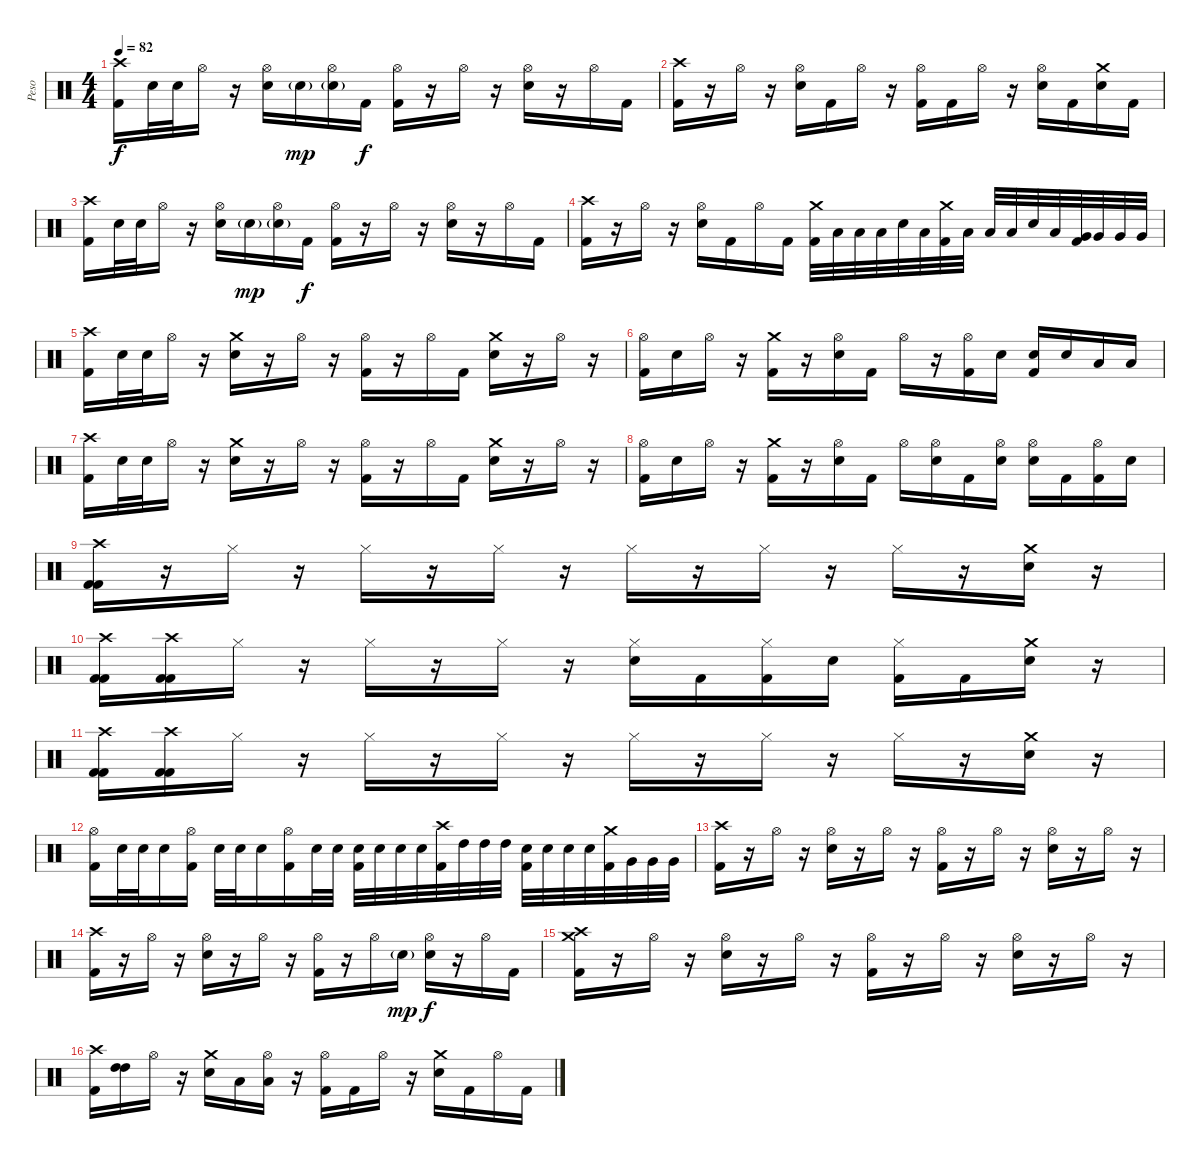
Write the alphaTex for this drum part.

\track ("Peso" "Peso") {instrument percussion}
\staff {score}
\articulation defaults
\ts (4 4)
\tempo 82
\clef neutral
\ks c
("Crash high (hit)" "Kick (hit) 2").16{dy f} "Electric Snare (hit)".32 "Electric Snare (hit)".32 "Hi-Hat (open)".16 r.16 ("Hi-Hat (open)" "Electric Snare (hit)").16 "Electric Snare (hit)"{g}.16{dy mp} ("Hi-Hat (open)" "Electric Snare (hit)"{g}).16 "Kick (hit) 2".16{dy f} ("Hi-Hat (open)" "Kick (hit) 2").16 r.16 "Hi-Hat (open)".16 r.16 ("Hi-Hat (open)" "Electric Snare (hit)").16 r.16 "Hi-Hat (open)".16 "Kick (hit) 2".16 |
("Crash high (hit)" "Kick (hit) 2").16 r.16 "Hi-Hat (open)".16 r.16 ("Hi-Hat (open)" "Electric Snare (hit)").16 "Kick (hit) 2".16 "Hi-Hat (open)".16 r.16 ("Hi-Hat (open)" "Kick (hit) 2").16 "Kick (hit) 2".16 "Hi-Hat (open)".16 r.16 ("Hi-Hat (open)" "Electric Snare (hit)").16 "Kick (hit) 2".16 ("Crash medium (hit)" "Electric Snare (hit)").16 "Kick (hit) 2".16 |
("Crash high (hit)" "Kick (hit) 2").16 "Electric Snare (hit)".32 "Electric Snare (hit)".32 "Hi-Hat (open)".16 r.16 ("Hi-Hat (open)" "Electric Snare (hit)").16 "Electric Snare (hit)"{g}.16{dy mp} ("Hi-Hat (open)" "Electric Snare (hit)"{g}).16 "Kick (hit) 2".16{dy f} ("Hi-Hat (open)" "Kick (hit) 2").16 r.16 "Hi-Hat (open)".16 r.16 ("Hi-Hat (open)" "Electric Snare (hit)").16 r.16 "Hi-Hat (open)".16 "Kick (hit) 2".16 |
("Crash high (hit)" "Kick (hit) 2").16 r.16 "Hi-Hat (open)".16 r.16 ("Hi-Hat (open)" "Electric Snare (hit)").16 "Kick (hit) 2".16 "Hi-Hat (open)".16 "Kick (hit) 2".16 ("Crash medium (hit)" "Kick (hit) 2").32 "Low Tom (hit)".32 "Low Tom (hit)".32 "Low Tom (hit)".32 "Electric Snare (hit)".32 "Low Tom (hit)".32 ("Crash medium (hit)" "Kick (hit) 2").32 "Low Tom (hit)".32 "Low Tom (hit)".32 "Low Tom (hit)".32 "Electric Snare (hit)".32 "Low Tom (hit)".32 ("Very Low Tom (hit)" "Kick (hit) 2").32 "Very Low Tom (hit)".32 "Very Low Tom (hit)".32 "Very Low Tom (hit)".32 |
("Crash high (hit)" "Kick (hit) 2").16 "Electric Snare (hit)".32 "Electric Snare (hit)".32 "Hi-Hat (open)".16 r.16 ("Crash medium (hit)" "Electric Snare (hit)").16 r.16 "Hi-Hat (open)".16 r.16 ("Hi-Hat (open)" "Kick (hit) 2").16 r.16 "Hi-Hat (open)".16 "Kick (hit) 2".16 ("Crash medium (hit)" "Electric Snare (hit)").16 r.16 "Hi-Hat (open)".16 r.16 |
("Hi-Hat (open)" "Kick (hit) 2").16 "Electric Snare (hit)".16 "Hi-Hat (open)".16 r.16 ("Crash medium (hit)" "Kick (hit) 2").16 r.16 ("Hi-Hat (open)" "Electric Snare (hit)").16 "Kick (hit) 2".16 "Hi-Hat (open)".16 r.16 ("Hi-Hat (open)" "Kick (hit) 2").16 "Electric Snare (hit)".16 ("Electric Snare (hit)" "Kick (hit) 2").16 "Electric Snare (hit)".16 "Low Tom (hit)".16 "Low Tom (hit)".16 |
("Crash high (hit)" "Kick (hit) 2").16 "Electric Snare (hit)".32 "Electric Snare (hit)".32 "Hi-Hat (open)".16 r.16 ("Crash medium (hit)" "Electric Snare (hit)").16 r.16 "Hi-Hat (open)".16 r.16 ("Hi-Hat (open)" "Kick (hit) 2").16 r.16 "Hi-Hat (open)".16 "Kick (hit) 2".16 ("Crash medium (hit)" "Electric Snare (hit)").16 r.16 "Hi-Hat (open)".16 r.16 |
("Hi-Hat (open)" "Kick (hit) 2").16 "Electric Snare (hit)".16 "Hi-Hat (open)".16 r.16 ("Crash medium (hit)" "Kick (hit) 2").16 r.16 ("Hi-Hat (open)" "Electric Snare (hit)").16 "Kick (hit) 2".16 "Hi-Hat (open)".16 ("Hi-Hat (open)" "Electric Snare (hit)").16 "Kick (hit) 2".16 ("Hi-Hat (open)" "Electric Snare (hit)").16 ("Hi-Hat (open)" "Electric Snare (hit)").16 "Kick (hit) 2".16 ("Hi-Hat (open)" "Kick (hit) 2").16 "Electric Snare (hit)".16 |
("Crash high (hit)" "Kick (hit) 2" "Kick (hit) 2").16 r.16 "Hi-Hat (closed)".16 r.16 "Hi-Hat (closed)".16 r.16 "Hi-Hat (closed)".16 r.16 "Hi-Hat (closed)".16 r.16 "Hi-Hat (closed)".16 r.16 "Hi-Hat (closed)".16 r.16 ("Crash medium (hit)" "Electric Snare (hit)").16 r.16 |
("Crash high (hit)" "Kick (hit) 2" "Kick (hit) 2").16 ("Crash high (hit)" "Kick (hit) 2" "Kick (hit) 2").16 "Hi-Hat (closed)".16 r.16 "Hi-Hat (closed)".16 r.16 "Hi-Hat (closed)".16 r.16 ("Hi-Hat (closed)" "Electric Snare (hit)").16 "Kick (hit) 2".16 ("Hi-Hat (closed)" "Kick (hit) 2").16 "Electric Snare (hit)".16 ("Hi-Hat (closed)" "Kick (hit) 2").16 "Kick (hit) 2".16 ("Crash medium (hit)" "Electric Snare (hit)").16 r.16 |
("Crash high (hit)" "Kick (hit) 2" "Kick (hit) 2").16 ("Crash high (hit)" "Kick (hit) 2" "Kick (hit) 2").16 "Hi-Hat (closed)".16 r.16 "Hi-Hat (closed)".16 r.16 "Hi-Hat (closed)".16 r.16 "Hi-Hat (closed)".16 r.16 "Hi-Hat (closed)".16 r.16 "Hi-Hat (closed)".16 r.16 ("Crash medium (hit)" "Electric Snare (hit)").16 r.16 |
("Hi-Hat (open)" "Kick (hit) 2").16 "Electric Snare (hit)".32 "Electric Snare (hit)".32 "Electric Snare (hit)".16 ("Hi-Hat (open)" "Kick (hit) 2").16 "Electric Snare (hit)".32 "Electric Snare (hit)".32 "Electric Snare (hit)".16 ("Hi-Hat (open)" "Kick (hit) 2").16 "Electric Snare (hit)".32 "Electric Snare (hit)".32 ("Electric Snare (hit)" "Kick (hit) 2").32 "Electric Snare (hit)".32 "Electric Snare (hit)".32 "Electric Snare (hit)".32 ("Crash high (hit)" "Kick (hit) 2").32 "High Tom (hit)".32 "High Tom (hit)".32 "High Tom (hit)".32 ("Electric Snare (hit)" "Kick (hit) 2").32 "Electric Snare (hit)".32 "Electric Snare (hit)".32 "Electric Snare (hit)".32 ("Crash medium (hit)" "Kick (hit) 2").32 "Very Low Tom (hit)".32 "Very Low Tom (hit)".32 "Very Low Tom (hit)".32 |
("Crash high (hit)" "Kick (hit) 2").16 r.16 "Hi-Hat (open)".16 r.16 ("Hi-Hat (open)" "Electric Snare (hit)").16 r.16 "Hi-Hat (open)".16 r.16 ("Hi-Hat (open)" "Kick (hit) 2").16 r.16 "Hi-Hat (open)".16 r.16 ("Hi-Hat (open)" "Electric Snare (hit)").16 r.16 "Hi-Hat (open)".16 r.16 |
("Crash high (hit)" "Kick (hit) 2").16 r.16 "Hi-Hat (open)".16 r.16 ("Hi-Hat (open)" "Electric Snare (hit)").16 r.16 "Hi-Hat (open)".16 r.16 ("Hi-Hat (open)" "Kick (hit) 2").16 r.16 "Hi-Hat (open)".16 "Electric Snare (hit)"{g}.16{dy mp} ("Hi-Hat (open)" "Electric Snare (hit)").16{dy f} r.16 "Hi-Hat (open)".16 "Kick (hit) 2".16 |
("Crash high (hit)" "Crash medium (hit)" "Kick (hit) 2").16 r.16 "Hi-Hat (open)".16 r.16 ("Hi-Hat (open)" "Electric Snare (hit)").16 r.16 "Hi-Hat (open)".16 r.16 ("Hi-Hat (open)" "Kick (hit) 2").16 r.16 "Hi-Hat (open)".16 r.16 ("Hi-Hat (open)" "Electric Snare (hit)").16 r.16 "Hi-Hat (open)".16 r.16 |
("Crash high (hit)" "Kick (hit) 2").16 ("High Tom (hit)" "High Tom (hit)").16 "Hi-Hat (open)".16 r.16 ("Crash medium (hit)" "Electric Snare (hit)").16 "Low Tom (hit)".16 ("Hi-Hat (open)" "Low Tom (hit)").16 r.16 ("Hi-Hat (open)" "Kick (hit) 2").16 "Kick (hit) 2".16 "Hi-Hat (open)".16 r.16 ("Crash medium (hit)" "Electric Snare (hit)").16 "Kick (hit) 2".16 "Hi-Hat (open)".16 "Kick (hit) 2".16
